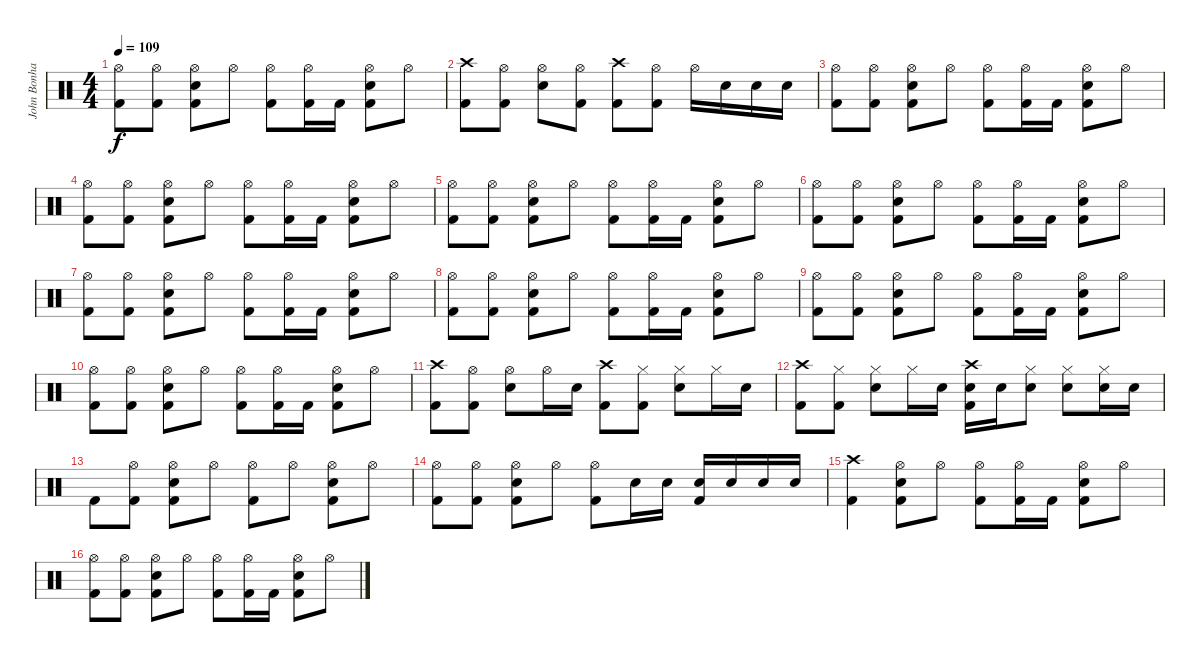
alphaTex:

\track ("John Bonham" "John Bonha") {instrument percussion}
\staff {score}
\articulation defaults
\ts (4 4)
\tempo 109
\clef neutral
\ks c
("Kick (hit) 2" "Hi-Hat (open)").8{dy f} ("Kick (hit) 2" "Hi-Hat (open)").8 ("Kick (hit) 2" "Snare (hit) 2" "Hi-Hat (open)").8 "Hi-Hat (open)".8 ("Kick (hit) 2" "Hi-Hat (open)").8 ("Kick (hit) 2" "Hi-Hat (open)").16 "Kick (hit) 2".16 ("Kick (hit) 2" "Electric Snare (hit)" "Hi-Hat (open)").8 "Hi-Hat (open)".8 |
("Kick (hit) 2" "Crash high (hit)").8 ("Kick (hit) 2" "Hi-Hat (open)").8 ("Electric Snare (hit)" "Hi-Hat (open)").8 ("Kick (hit) 2" "Hi-Hat (open)").8 ("Kick (hit) 2" "Crash high (hit)").8 ("Kick (hit) 2" "Hi-Hat (open)").8 "Hi-Hat (open)".16 "Electric Snare (hit)".16 "Electric Snare (hit)".16 "Snare (hit) 2".16 |
("Kick (hit) 2" "Hi-Hat (open)").8 ("Kick (hit) 2" "Hi-Hat (open)").8 ("Kick (hit) 2" "Snare (hit) 2" "Hi-Hat (open)").8 "Hi-Hat (open)".8 ("Kick (hit) 2" "Hi-Hat (open)").8 ("Kick (hit) 2" "Hi-Hat (open)").16 "Kick (hit) 2".16 ("Kick (hit) 2" "Electric Snare (hit)" "Hi-Hat (open)").8 "Hi-Hat (open)".8 |
("Kick (hit) 2" "Hi-Hat (open)").8 ("Kick (hit) 2" "Hi-Hat (open)").8 ("Kick (hit) 2" "Snare (hit) 2" "Hi-Hat (open)").8 "Hi-Hat (open)".8 ("Kick (hit) 2" "Hi-Hat (open)").8 ("Kick (hit) 2" "Hi-Hat (open)").16 "Kick (hit) 2".16 ("Kick (hit) 2" "Electric Snare (hit)" "Hi-Hat (open)").8 "Hi-Hat (open)".8 |
("Kick (hit) 2" "Hi-Hat (open)").8 ("Kick (hit) 2" "Hi-Hat (open)").8 ("Kick (hit) 2" "Snare (hit) 2" "Hi-Hat (open)").8 "Hi-Hat (open)".8 ("Kick (hit) 2" "Hi-Hat (open)").8 ("Kick (hit) 2" "Hi-Hat (open)").16 "Kick (hit) 2".16 ("Kick (hit) 2" "Electric Snare (hit)" "Hi-Hat (open)").8 "Hi-Hat (open)".8 |
("Kick (hit) 2" "Hi-Hat (open)").8 ("Kick (hit) 2" "Hi-Hat (open)").8 ("Kick (hit) 2" "Snare (hit) 2" "Hi-Hat (open)").8 "Hi-Hat (open)".8 ("Kick (hit) 2" "Hi-Hat (open)").8 ("Kick (hit) 2" "Hi-Hat (open)").16 "Kick (hit) 2".16 ("Kick (hit) 2" "Electric Snare (hit)" "Hi-Hat (open)").8 "Hi-Hat (open)".8 |
("Kick (hit) 2" "Hi-Hat (open)").8 ("Kick (hit) 2" "Hi-Hat (open)").8 ("Kick (hit) 2" "Snare (hit) 2" "Hi-Hat (open)").8 "Hi-Hat (open)".8 ("Kick (hit) 2" "Hi-Hat (open)").8 ("Kick (hit) 2" "Hi-Hat (open)").16 "Kick (hit) 2".16 ("Kick (hit) 2" "Electric Snare (hit)" "Hi-Hat (open)").8 "Hi-Hat (open)".8 |
("Kick (hit) 2" "Hi-Hat (open)").8 ("Kick (hit) 2" "Hi-Hat (open)").8 ("Kick (hit) 2" "Snare (hit) 2" "Hi-Hat (open)").8 "Hi-Hat (open)".8 ("Kick (hit) 2" "Hi-Hat (open)").8 ("Kick (hit) 2" "Hi-Hat (open)").16 "Kick (hit) 2".16 ("Kick (hit) 2" "Electric Snare (hit)" "Hi-Hat (open)").8 "Hi-Hat (open)".8 |
("Kick (hit) 2" "Hi-Hat (open)").8 ("Kick (hit) 2" "Hi-Hat (open)").8 ("Kick (hit) 2" "Snare (hit) 2" "Hi-Hat (open)").8 "Hi-Hat (open)".8 ("Kick (hit) 2" "Hi-Hat (open)").8 ("Kick (hit) 2" "Hi-Hat (open)").16 "Kick (hit) 2".16 ("Kick (hit) 2" "Electric Snare (hit)" "Hi-Hat (open)").8 "Hi-Hat (open)".8 |
("Kick (hit) 2" "Hi-Hat (open)").8 ("Kick (hit) 2" "Hi-Hat (open)").8 ("Kick (hit) 2" "Snare (hit) 2" "Hi-Hat (open)").8 "Hi-Hat (open)".8 ("Kick (hit) 2" "Hi-Hat (open)").8 ("Kick (hit) 2" "Hi-Hat (open)").16 "Kick (hit) 2".16 ("Kick (hit) 2" "Electric Snare (hit)" "Hi-Hat (open)").8 "Hi-Hat (open)".8 |
("Kick (hit) 2" "Crash high (hit)").8 ("Kick (hit) 2" "Hi-Hat (open)").8 ("Electric Snare (hit)" "Hi-Hat (open)").8 "Hi-Hat (open)".16 "Snare (hit) 2".16 ("Kick (hit) 2" "Crash high (hit)").8 ("Kick (hit) 2" "Hi-Hat (closed)").8 ("Snare (hit) 2" "Hi-Hat (closed)").8 "Hi-Hat (closed)".16 "Snare (hit) 2".16 |
("Kick (hit) 2" "Crash high (hit)").8 ("Kick (hit) 2" "Hi-Hat (closed)").8 ("Electric Snare (hit)" "Hi-Hat (closed)").8 "Hi-Hat (closed)".16 "Electric Snare (hit)".16 ("Kick (hit) 2" "Snare (hit) 2" "Crash high (hit)").16 "Electric Snare (hit)".16 ("Snare (hit) 2" "Hi-Hat (closed)").8 ("Snare (hit) 2" "Hi-Hat (closed)").8 ("Snare (hit) 2" "Hi-Hat (closed)").16 "Electric Snare (hit)".16 |
"Kick (hit) 2".8 ("Hi-Hat (open)" "Kick (hit) 2").8 ("Hi-Hat (open)" "Electric Snare (hit)" "Kick (hit) 2").8 "Hi-Hat (open)".8 ("Hi-Hat (open)" "Kick (hit) 2").8 "Hi-Hat (open)".8 ("Hi-Hat (open)" "Kick (hit) 2" "Electric Snare (hit)").8 "Hi-Hat (open)".8 |
("Kick (hit) 2" "Hi-Hat (open)").8 ("Kick (hit) 2" "Hi-Hat (open)").8 ("Electric Snare (hit)" "Kick (hit) 2" "Hi-Hat (open)").8 "Hi-Hat (open)".8 ("Kick (hit) 2" "Hi-Hat (open)").8 "Snare (hit) 2".16 "Electric Snare (hit)".16 ("Kick (hit) 2" "Snare (hit) 2").16 "Electric Snare (hit)".16 "Snare (hit) 2".16 "Snare (hit) 2".16 |
("Kick (hit) 2" "Crash high (hit)").4 ("Hi-Hat (open)" "Snare (hit) 2" "Kick (hit) 2").8 "Hi-Hat (open)".8 ("Hi-Hat (open)" "Kick (hit) 2").8 ("Hi-Hat (open)" "Kick (hit) 2").16 "Kick (hit) 2".16 ("Hi-Hat (open)" "Electric Snare (hit)" "Kick (hit) 2").8 "Hi-Hat (open)".8 |
("Kick (hit) 2" "Hi-Hat (open)").8 ("Kick (hit) 2" "Hi-Hat (open)").8 ("Kick (hit) 2" "Snare (hit) 2" "Hi-Hat (open)").8 "Hi-Hat (open)".8 ("Kick (hit) 2" "Hi-Hat (open)").8 ("Kick (hit) 2" "Hi-Hat (open)").16 "Kick (hit) 2".16 ("Kick (hit) 2" "Electric Snare (hit)" "Hi-Hat (open)").8 "Hi-Hat (open)".8
